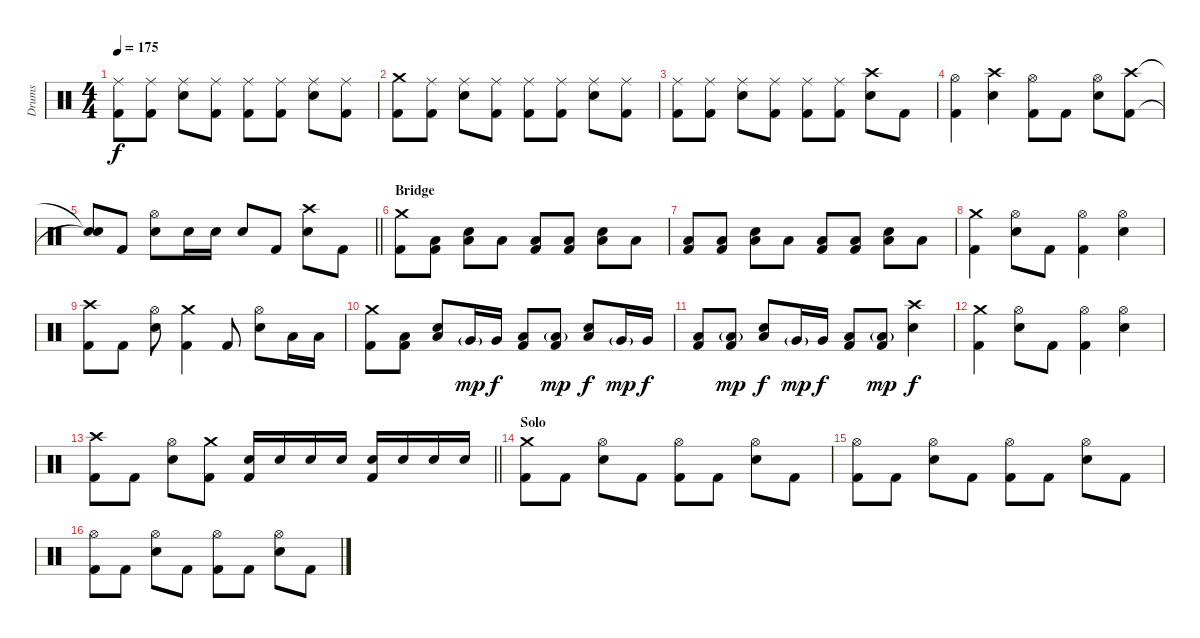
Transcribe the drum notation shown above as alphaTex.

\track ("Drums" "Drums") {instrument percussion}
\staff {score}
\articulation defaults
\ts (4 4)
\tempo 175
\clef neutral
\ks c
("Ride (middle)" "Kick (hit) 2").8{dy f} ("Ride (middle)" "Kick (hit) 2").8 ("Ride (middle)" "Electric Snare (hit)").8 ("Ride (middle)" "Kick (hit) 2").8 ("Ride (middle)" "Kick (hit) 2").8 ("Ride (middle)" "Kick (hit) 2").8 ("Ride (middle)" "Electric Snare (hit)").8 ("Ride (middle)" "Kick (hit) 2").8 |
("Crash medium (hit)" "Kick (hit) 2").8 ("Ride (middle)" "Kick (hit) 2").8 ("Ride (middle)" "Electric Snare (hit)").8 ("Ride (middle)" "Kick (hit) 2").8 ("Ride (middle)" "Kick (hit) 2").8 ("Ride (middle)" "Kick (hit) 2").8 ("Ride (middle)" "Electric Snare (hit)").8 ("Ride (middle)" "Kick (hit) 2").8 |
("Ride (middle)" "Kick (hit) 2").8 ("Ride (middle)" "Kick (hit) 2").8 ("Ride (middle)" "Electric Snare (hit)").8 ("Ride (middle)" "Kick (hit) 2").8 ("Ride (middle)" "Kick (hit) 2").8 ("Ride (middle)" "Kick (hit) 2").8 ("Crash high (hit)" "Electric Snare (hit)").8 "Kick (hit) 2".8 |
("Hi-Hat (open)" "Kick (hit) 2").4 ("Crash high (hit)" "Electric Snare (hit)").4 ("Hi-Hat (open)" "Kick (hit) 2").8 "Kick (hit) 2".8 ("Hi-Hat (open)" "Electric Snare (hit)").8 ("Crash high (hit)" "Kick (hit) 2").8 |
\barLineRight lightlight
("Snare (hit)"{t} "Snare (hit)"{t}).8 "Kick (hit) 2".8 ("Hi-Hat (open)" "Electric Snare (hit)").8 "Electric Snare (hit)".16 "Electric Snare (hit)".16 "Electric Snare (hit)".8 "Kick (hit) 2".8 ("Crash high (hit)" "Electric Snare (hit)").8 "Kick (hit) 2".8 |
\section ("" "Bridge")
("Crash medium (hit)" "Kick (hit) 2").8 ("Low Floor Tom (hit)" "Kick (hit) 2").8 ("Low Floor Tom (hit)" "Electric Snare (hit)").8 "Low Floor Tom (hit)".8 ("Low Floor Tom (hit)" "Kick (hit) 2").8 ("Low Floor Tom (hit)" "Kick (hit) 2").8 ("Low Floor Tom (hit)" "Electric Snare (hit)").8 "Low Floor Tom (hit)".8 |
("Low Floor Tom (hit)" "Kick (hit) 2").8 ("Low Floor Tom (hit)" "Kick (hit) 2").8 ("Low Floor Tom (hit)" "Electric Snare (hit)").8 "Low Floor Tom (hit)".8 ("Low Floor Tom (hit)" "Kick (hit) 2").8 ("Low Floor Tom (hit)" "Kick (hit) 2").8 ("Low Floor Tom (hit)" "Electric Snare (hit)").8 "Low Floor Tom (hit)".8 |
("Crash medium (hit)" "Kick (hit) 2").4 ("Hi-Hat (open)" "Electric Snare (hit)").8 "Kick (hit) 2".8 ("Hi-Hat (open)" "Kick (hit) 2").4 ("Hi-Hat (open)" "Electric Snare (hit)").4 |
("Crash high (hit)" "Kick (hit) 2").8 "Kick (hit) 2".8 ("Hi-Hat (open)" "Electric Snare (hit)").8 ("Crash medium (hit)" "Kick (hit) 2").4 "Kick (hit) 2".8 ("Hi-Hat (open)" "Electric Snare (hit)").8 "Low Tom (hit)".16 "Low Tom (hit)".16 |
("Crash medium (hit)" "Kick (hit) 2").8 ("Low Floor Tom (hit)" "Kick (hit) 2").8 ("Low Floor Tom (hit)" "Electric Snare (hit)").8 "Very Low Tom (hit)"{g}.16{dy mp} "Very Low Tom (hit)".16{dy f} ("Low Floor Tom (hit)" "Kick (hit) 2").8 ("Low Floor Tom (hit)"{g} "Kick (hit) 2").8{dy mp} ("Low Floor Tom (hit)" "Electric Snare (hit)").8{dy f} "Very Low Tom (hit)"{g}.16{dy mp} "Very Low Tom (hit)".16{dy f} |
("Low Floor Tom (hit)" "Kick (hit) 2").8 ("Low Floor Tom (hit)"{g} "Kick (hit) 2").8{dy mp} ("Low Floor Tom (hit)" "Electric Snare (hit)").8{dy f} "Very Low Tom (hit)"{g}.16{dy mp} "Very Low Tom (hit)".16{dy f} ("Low Floor Tom (hit)" "Kick (hit) 2").8 ("Low Floor Tom (hit)"{g} "Kick (hit) 2").8{dy mp} ("Crash high (hit)" "Electric Snare (hit)").4{dy f} |
("Crash medium (hit)" "Kick (hit) 2").4 ("Hi-Hat (open)" "Electric Snare (hit)").8 "Kick (hit) 2".8 ("Hi-Hat (open)" "Kick (hit) 2").4 ("Hi-Hat (open)" "Electric Snare (hit)").4 |
\barLineRight lightlight
("Crash high (hit)" "Kick (hit) 2").8 "Kick (hit) 2".8 ("Hi-Hat (open)" "Electric Snare (hit)").8 ("Crash medium (hit)" "Kick (hit) 2").8 ("Electric Snare (hit)" "Kick (hit) 2").16 "Electric Snare (hit)".16 "Electric Snare (hit)".16 "Electric Snare (hit)".16 ("Electric Snare (hit)" "Kick (hit) 2").16 "Electric Snare (hit)".16 "Electric Snare (hit)".16 "Electric Snare (hit)".16 |
\section ("" "Solo")
("Crash medium (hit)" "Kick (hit) 2").8 "Kick (hit) 2".8 ("Hi-Hat (open)" "Electric Snare (hit)").8 "Kick (hit) 2".8 ("Hi-Hat (open)" "Kick (hit) 2").8 "Kick (hit) 2".8 ("Hi-Hat (open)" "Electric Snare (hit)").8 "Kick (hit) 2".8 |
("Hi-Hat (open)" "Kick (hit) 2").8 "Kick (hit) 2".8 ("Hi-Hat (open)" "Electric Snare (hit)").8 "Kick (hit) 2".8 ("Hi-Hat (open)" "Kick (hit) 2").8 "Kick (hit) 2".8 ("Hi-Hat (open)" "Electric Snare (hit)").8 "Kick (hit) 2".8 |
("Hi-Hat (open)" "Kick (hit) 2").8 "Kick (hit) 2".8 ("Hi-Hat (open)" "Electric Snare (hit)").8 "Kick (hit) 2".8 ("Hi-Hat (open)" "Kick (hit) 2").8 "Kick (hit) 2".8 ("Hi-Hat (open)" "Electric Snare (hit)").8 "Kick (hit) 2".8
